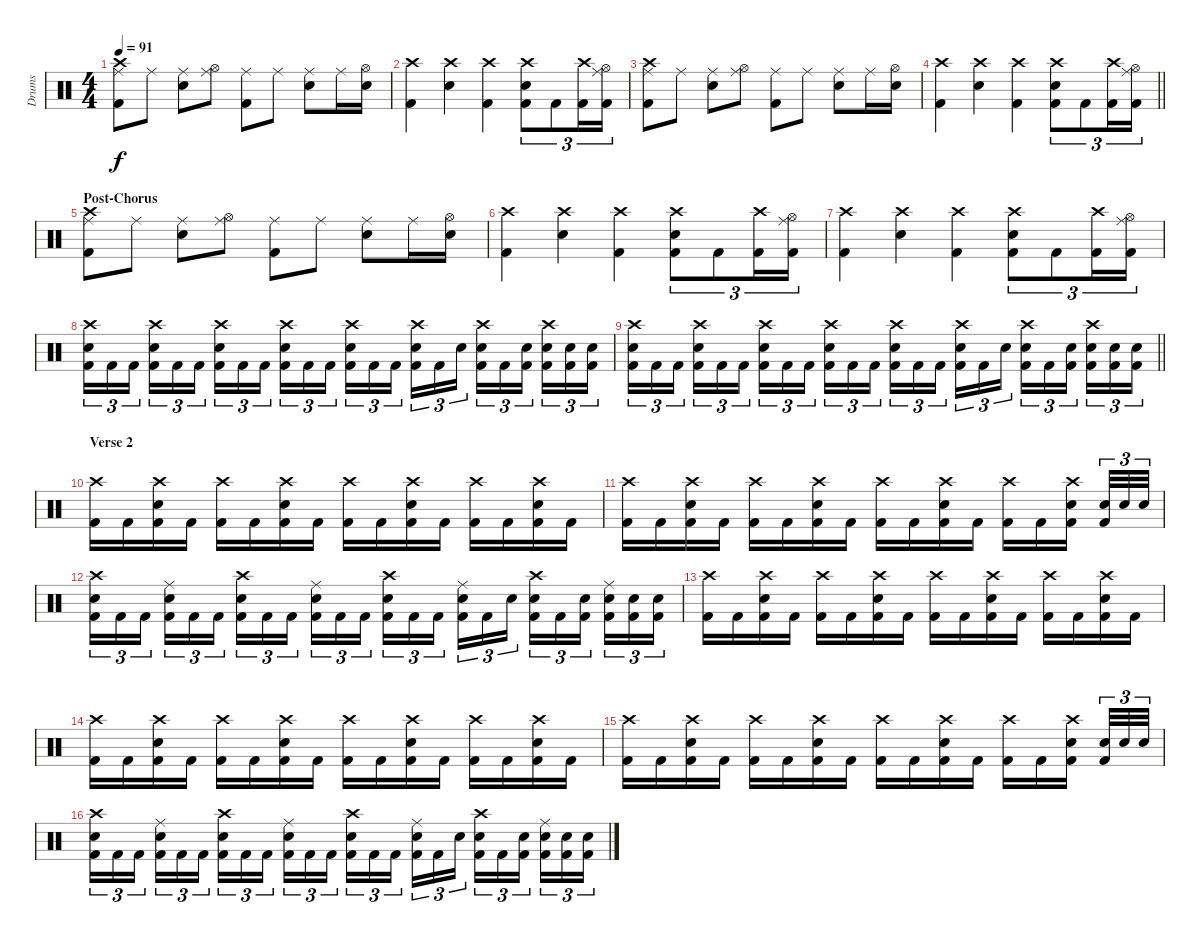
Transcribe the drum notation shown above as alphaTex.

\track ("Drums" "Drums") {instrument percussion}
\staff {score}
\articulation defaults
\ts (4 4)
\tempo 91
\clef neutral
\ks c
("Crash high (hit)" "Ride (middle)" "Kick (hit) 2").8{dy f} "Ride (middle)".8 ("Ride (middle)" "Snare (hit) 2").8 ("Ride (middle)" "Hi-Hat (open)").8 ("Ride (middle)" "Kick (hit) 2").8 "Ride (middle)".8 ("Ride (middle)" "Snare (hit) 2").8 "Ride (middle)".16 ("Snare (hit) 2" "Hi-Hat (open)").16 |
("Crash high (hit)" "Kick (hit) 2").4 ("Crash high (hit)" "Snare (hit) 2").4 ("Crash high (hit)" "Kick (hit) 2").4 ("Crash high (hit)" "Snare (hit) 2" "Kick (hit) 2").8{tu (3 2)} "Kick (hit) 2".8{tu (3 2)} ("Crash high (hit)" "Kick (hit) 2").16{tu (3 2)} ("Ride (middle)" "Hi-Hat (open)" "Kick (hit) 2").16{tu (3 2)} |
("Crash high (hit)" "Ride (middle)" "Kick (hit) 2").8 "Ride (middle)".8 ("Ride (middle)" "Snare (hit) 2").8 ("Ride (middle)" "Hi-Hat (open)").8 ("Ride (middle)" "Kick (hit) 2").8 "Ride (middle)".8 ("Ride (middle)" "Snare (hit) 2").8 "Ride (middle)".16 ("Snare (hit) 2" "Hi-Hat (open)").16 |
\barLineRight lightlight
("Crash high (hit)" "Kick (hit) 2").4 ("Crash high (hit)" "Snare (hit) 2").4 ("Crash high (hit)" "Kick (hit) 2").4 ("Crash high (hit)" "Snare (hit) 2" "Kick (hit) 2").8{tu (3 2)} "Kick (hit) 2".8{tu (3 2)} ("Crash high (hit)" "Kick (hit) 2").16{tu (3 2)} ("Ride (middle)" "Hi-Hat (open)" "Kick (hit) 2").16{tu (3 2)} |
\section ("" "Post-Chorus")
("Crash high (hit)" "Ride (middle)" "Kick (hit) 2").8 "Ride (middle)".8 ("Ride (middle)" "Snare (hit) 2").8 ("Ride (middle)" "Hi-Hat (open)").8 ("Ride (middle)" "Kick (hit) 2").8 "Ride (middle)".8 ("Ride (middle)" "Snare (hit) 2").8 "Ride (middle)".16 ("Snare (hit) 2" "Hi-Hat (open)").16 |
("Crash high (hit)" "Kick (hit) 2").4 ("Crash high (hit)" "Snare (hit) 2").4 ("Crash high (hit)" "Kick (hit) 2").4 ("Crash high (hit)" "Snare (hit) 2" "Kick (hit) 2").8{tu (3 2)} "Kick (hit) 2".8{tu (3 2)} ("Crash high (hit)" "Kick (hit) 2").16{tu (3 2)} ("Ride (middle)" "Hi-Hat (open)" "Kick (hit) 2").16{tu (3 2)} |
("Crash high (hit)" "Kick (hit) 2").4 ("Crash high (hit)" "Snare (hit) 2").4 ("Crash high (hit)" "Kick (hit) 2").4 ("Crash high (hit)" "Snare (hit) 2" "Kick (hit) 2").8{tu (3 2)} "Kick (hit) 2".8{tu (3 2)} ("Crash high (hit)" "Kick (hit) 2").16{tu (3 2)} ("Ride (middle)" "Hi-Hat (open)" "Kick (hit) 2").16{tu (3 2)} |
("Crash high (hit)" "Snare (hit) 2" "Kick (hit) 2").16{tu (3 2)} "Kick (hit) 2".16{tu (3 2)} "Kick (hit) 2".16{tu (3 2) beam splitsecondary} ("Crash high (hit)" "Snare (hit) 2" "Kick (hit) 2").16{tu (3 2)} "Kick (hit) 2".16{tu (3 2)} "Kick (hit) 2".16{tu (3 2)} ("Crash high (hit)" "Snare (hit) 2" "Kick (hit) 2").16{tu (3 2)} "Kick (hit) 2".16{tu (3 2)} "Kick (hit) 2".16{tu (3 2) beam splitsecondary} ("Crash high (hit)" "Snare (hit) 2" "Kick (hit) 2").16{tu (3 2)} "Kick (hit) 2".16{tu (3 2)} "Kick (hit) 2".16{tu (3 2)} ("Crash high (hit)" "Snare (hit) 2" "Kick (hit) 2").16{tu (3 2)} "Kick (hit) 2".16{tu (3 2)} "Kick (hit) 2".16{tu (3 2) beam splitsecondary} ("Crash high (hit)" "Snare (hit) 2" "Kick (hit) 2").16{tu (3 2)} "Kick (hit) 2".16{tu (3 2)} "Snare (hit) 2".16{tu (3 2)} ("Crash high (hit)" "Snare (hit) 2" "Kick (hit) 2").16{tu (3 2)} "Kick (hit) 2".16{tu (3 2)} ("Snare (hit) 2" "Kick (hit) 2").16{tu (3 2) beam splitsecondary} ("Crash high (hit)" "Snare (hit) 2" "Kick (hit) 2").16{tu (3 2)} ("Snare (hit) 2" "Kick (hit) 2").16{tu (3 2)} ("Snare (hit) 2" "Kick (hit) 2").16{tu (3 2)} |
\barLineRight lightlight
("Crash high (hit)" "Snare (hit) 2" "Kick (hit) 2").16{tu (3 2)} "Kick (hit) 2".16{tu (3 2)} "Kick (hit) 2".16{tu (3 2) beam splitsecondary} ("Crash high (hit)" "Snare (hit) 2" "Kick (hit) 2").16{tu (3 2)} "Kick (hit) 2".16{tu (3 2)} "Kick (hit) 2".16{tu (3 2)} ("Crash high (hit)" "Snare (hit) 2" "Kick (hit) 2").16{tu (3 2)} "Kick (hit) 2".16{tu (3 2)} "Kick (hit) 2".16{tu (3 2) beam splitsecondary} ("Crash high (hit)" "Snare (hit) 2" "Kick (hit) 2").16{tu (3 2)} "Kick (hit) 2".16{tu (3 2)} "Kick (hit) 2".16{tu (3 2)} ("Crash high (hit)" "Snare (hit) 2" "Kick (hit) 2").16{tu (3 2)} "Kick (hit) 2".16{tu (3 2)} "Kick (hit) 2".16{tu (3 2) beam splitsecondary} ("Crash high (hit)" "Snare (hit) 2" "Kick (hit) 2").16{tu (3 2)} "Kick (hit) 2".16{tu (3 2)} "Snare (hit) 2".16{tu (3 2)} ("Crash high (hit)" "Snare (hit) 2" "Kick (hit) 2").16{tu (3 2)} "Kick (hit) 2".16{tu (3 2)} ("Snare (hit) 2" "Kick (hit) 2").16{tu (3 2) beam splitsecondary} ("Crash high (hit)" "Snare (hit) 2" "Kick (hit) 2").16{tu (3 2)} ("Snare (hit) 2" "Kick (hit) 2").16{tu (3 2)} ("Snare (hit) 2" "Kick (hit) 2").16{tu (3 2)} |
\section ("" "Verse 2")
("Crash high (hit)" "Kick (hit) 2").16 "Kick (hit) 2".16 ("Snare (hit) 2" "Crash high (hit)" "Kick (hit) 2").16 "Kick (hit) 2".16 ("Crash high (hit)" "Kick (hit) 2").16 "Kick (hit) 2".16 ("Snare (hit) 2" "Crash high (hit)" "Kick (hit) 2").16 "Kick (hit) 2".16 ("Crash high (hit)" "Kick (hit) 2").16 "Kick (hit) 2".16 ("Snare (hit) 2" "Crash high (hit)" "Kick (hit) 2").16 "Kick (hit) 2".16 ("Crash high (hit)" "Kick (hit) 2").16 "Kick (hit) 2".16 ("Snare (hit) 2" "Crash high (hit)" "Kick (hit) 2").16 "Kick (hit) 2".16 |
("Crash high (hit)" "Kick (hit) 2").16 "Kick (hit) 2".16 ("Snare (hit) 2" "Crash high (hit)" "Kick (hit) 2").16 "Kick (hit) 2".16 ("Crash high (hit)" "Kick (hit) 2").16 "Kick (hit) 2".16 ("Snare (hit) 2" "Crash high (hit)" "Kick (hit) 2").16 "Kick (hit) 2".16 ("Crash high (hit)" "Kick (hit) 2").16 "Kick (hit) 2".16 ("Snare (hit) 2" "Crash high (hit)" "Kick (hit) 2").16 "Kick (hit) 2".16 ("Crash high (hit)" "Kick (hit) 2").16 "Kick (hit) 2".16 ("Snare (hit) 2" "Crash high (hit)" "Kick (hit) 2").16{beam splitsecondary} ("Snare (hit) 2" "Kick (hit) 2").32{tu (3 2)} "Snare (hit) 2".32{tu (3 2)} "Snare (hit) 2".32{tu (3 2)} |
("Crash high (hit)" "Snare (hit) 2" "Kick (hit) 2").16{tu (3 2)} "Kick (hit) 2".16{tu (3 2)} "Kick (hit) 2".16{tu (3 2) beam splitsecondary} ("Ride (middle)" "Snare (hit) 2" "Kick (hit) 2").16{tu (3 2)} "Kick (hit) 2".16{tu (3 2)} "Kick (hit) 2".16{tu (3 2)} ("Crash high (hit)" "Snare (hit) 2" "Kick (hit) 2").16{tu (3 2)} "Kick (hit) 2".16{tu (3 2)} "Kick (hit) 2".16{tu (3 2) beam splitsecondary} ("Ride (middle)" "Snare (hit) 2" "Kick (hit) 2").16{tu (3 2)} "Kick (hit) 2".16{tu (3 2)} "Kick (hit) 2".16{tu (3 2)} ("Crash high (hit)" "Snare (hit) 2" "Kick (hit) 2").16{tu (3 2)} "Kick (hit) 2".16{tu (3 2)} "Kick (hit) 2".16{tu (3 2) beam splitsecondary} ("Ride (middle)" "Snare (hit) 2" "Kick (hit) 2").16{tu (3 2)} "Kick (hit) 2".16{tu (3 2)} "Snare (hit) 2".16{tu (3 2)} ("Crash high (hit)" "Snare (hit) 2" "Kick (hit) 2").16{tu (3 2)} "Kick (hit) 2".16{tu (3 2)} ("Snare (hit) 2" "Kick (hit) 2").16{tu (3 2) beam splitsecondary} ("Ride (middle)" "Snare (hit) 2" "Kick (hit) 2").16{tu (3 2)} ("Snare (hit) 2" "Kick (hit) 2").16{tu (3 2)} ("Snare (hit) 2" "Kick (hit) 2").16{tu (3 2)} |
("Crash high (hit)" "Kick (hit) 2").16 "Kick (hit) 2".16 ("Snare (hit) 2" "Crash high (hit)" "Kick (hit) 2").16 "Kick (hit) 2".16 ("Crash high (hit)" "Kick (hit) 2").16 "Kick (hit) 2".16 ("Snare (hit) 2" "Crash high (hit)" "Kick (hit) 2").16 "Kick (hit) 2".16 ("Crash high (hit)" "Kick (hit) 2").16 "Kick (hit) 2".16 ("Snare (hit) 2" "Crash high (hit)" "Kick (hit) 2").16 "Kick (hit) 2".16 ("Crash high (hit)" "Kick (hit) 2").16 "Kick (hit) 2".16 ("Snare (hit) 2" "Crash high (hit)" "Kick (hit) 2").16 "Kick (hit) 2".16 |
("Crash high (hit)" "Kick (hit) 2").16 "Kick (hit) 2".16 ("Snare (hit) 2" "Crash high (hit)" "Kick (hit) 2").16 "Kick (hit) 2".16 ("Crash high (hit)" "Kick (hit) 2").16 "Kick (hit) 2".16 ("Snare (hit) 2" "Crash high (hit)" "Kick (hit) 2").16 "Kick (hit) 2".16 ("Crash high (hit)" "Kick (hit) 2").16 "Kick (hit) 2".16 ("Snare (hit) 2" "Crash high (hit)" "Kick (hit) 2").16 "Kick (hit) 2".16 ("Crash high (hit)" "Kick (hit) 2").16 "Kick (hit) 2".16 ("Snare (hit) 2" "Crash high (hit)" "Kick (hit) 2").16 "Kick (hit) 2".16 |
("Crash high (hit)" "Kick (hit) 2").16 "Kick (hit) 2".16 ("Snare (hit) 2" "Crash high (hit)" "Kick (hit) 2").16 "Kick (hit) 2".16 ("Crash high (hit)" "Kick (hit) 2").16 "Kick (hit) 2".16 ("Snare (hit) 2" "Crash high (hit)" "Kick (hit) 2").16 "Kick (hit) 2".16 ("Crash high (hit)" "Kick (hit) 2").16 "Kick (hit) 2".16 ("Snare (hit) 2" "Crash high (hit)" "Kick (hit) 2").16 "Kick (hit) 2".16 ("Crash high (hit)" "Kick (hit) 2").16 "Kick (hit) 2".16 ("Snare (hit) 2" "Crash high (hit)" "Kick (hit) 2").16{beam splitsecondary} ("Snare (hit) 2" "Kick (hit) 2").32{tu (3 2)} "Snare (hit) 2".32{tu (3 2)} "Snare (hit) 2".32{tu (3 2)} |
("Crash high (hit)" "Snare (hit) 2" "Kick (hit) 2").16{tu (3 2)} "Kick (hit) 2".16{tu (3 2)} "Kick (hit) 2".16{tu (3 2) beam splitsecondary} ("Ride (middle)" "Snare (hit) 2" "Kick (hit) 2").16{tu (3 2)} "Kick (hit) 2".16{tu (3 2)} "Kick (hit) 2".16{tu (3 2)} ("Crash high (hit)" "Snare (hit) 2" "Kick (hit) 2").16{tu (3 2)} "Kick (hit) 2".16{tu (3 2)} "Kick (hit) 2".16{tu (3 2) beam splitsecondary} ("Ride (middle)" "Snare (hit) 2" "Kick (hit) 2").16{tu (3 2)} "Kick (hit) 2".16{tu (3 2)} "Kick (hit) 2".16{tu (3 2)} ("Crash high (hit)" "Snare (hit) 2" "Kick (hit) 2").16{tu (3 2)} "Kick (hit) 2".16{tu (3 2)} "Kick (hit) 2".16{tu (3 2) beam splitsecondary} ("Ride (middle)" "Snare (hit) 2" "Kick (hit) 2").16{tu (3 2)} "Kick (hit) 2".16{tu (3 2)} "Snare (hit) 2".16{tu (3 2)} ("Crash high (hit)" "Snare (hit) 2" "Kick (hit) 2").16{tu (3 2)} "Kick (hit) 2".16{tu (3 2)} ("Snare (hit) 2" "Kick (hit) 2").16{tu (3 2) beam splitsecondary} ("Ride (middle)" "Snare (hit) 2" "Kick (hit) 2").16{tu (3 2)} ("Snare (hit) 2" "Kick (hit) 2").16{tu (3 2)} ("Snare (hit) 2" "Kick (hit) 2").16{tu (3 2)}
